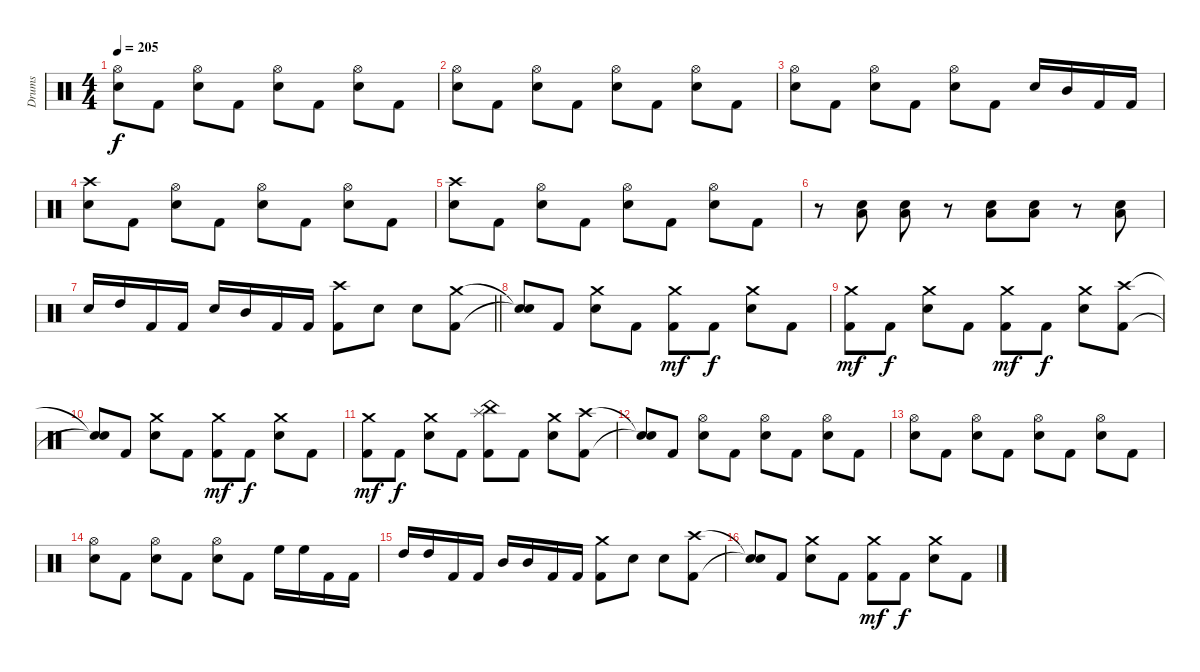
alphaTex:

\track ("Drums" "Drums") {instrument percussion}
\staff {score}
\articulation defaults
\ts (4 4)
\tempo 205
\clef neutral
\ks c
("Hi-Hat (open)" "Electric Snare (hit)").8{dy f} "Kick (hit) 2".8 ("Hi-Hat (open)" "Electric Snare (hit)").8 "Kick (hit) 2".8 ("Hi-Hat (open)" "Electric Snare (hit)").8 "Kick (hit) 2".8 ("Hi-Hat (open)" "Electric Snare (hit)").8 "Kick (hit) 2".8 |
("Hi-Hat (open)" "Electric Snare (hit)").8 "Kick (hit) 2".8 ("Hi-Hat (open)" "Electric Snare (hit)").8 "Kick (hit) 2".8 ("Hi-Hat (open)" "Electric Snare (hit)").8 "Kick (hit) 2".8 ("Hi-Hat (open)" "Electric Snare (hit)").8 "Kick (hit) 2".8 |
("Hi-Hat (open)" "Electric Snare (hit)").8 "Kick (hit) 2".8 ("Hi-Hat (open)" "Electric Snare (hit)").8 "Kick (hit) 2".8 ("Hi-Hat (open)" "Electric Snare (hit)").8 "Kick (hit) 2".8 "Electric Snare (hit)".16 "Mid Tom (hit)".16 "Kick (hit) 2".16 "Kick (hit) 2".16 |
("Crash high (hit)" "Electric Snare (hit)").8 "Kick (hit) 2".8 ("Hi-Hat (open)" "Electric Snare (hit)").8 "Kick (hit) 2".8 ("Hi-Hat (open)" "Electric Snare (hit)").8 "Kick (hit) 2".8 ("Hi-Hat (open)" "Electric Snare (hit)").8 "Kick (hit) 2".8 |
("Crash high (hit)" "Electric Snare (hit)").8 "Kick (hit) 2".8 ("Hi-Hat (open)" "Electric Snare (hit)").8 "Kick (hit) 2".8 ("Hi-Hat (open)" "Electric Snare (hit)").8 "Kick (hit) 2".8 ("Hi-Hat (open)" "Electric Snare (hit)").8 "Kick (hit) 2".8 |
r.8 ("Low Tom (hit)" "Electric Snare (hit)").8 ("Low Tom (hit)" "Electric Snare (hit)").8 r.8 ("Low Tom (hit)" "Electric Snare (hit)").8 ("Low Tom (hit)" "Electric Snare (hit)").8 r.8 ("Low Tom (hit)" "Electric Snare (hit)").8 |
\barLineRight lightlight "Electric Snare (hit)".16 "High Tom (hit)".16 "Kick (hit) 2".16 "Kick (hit) 2".16 "Electric Snare (hit)".16 "Mid Tom (hit)".16 "Kick (hit) 2".16 "Kick (hit) 2".16
("Crash high (hit)" "Kick (hit) 2").8 "Electric Snare (hit)".8 "Electric Snare (hit)".8 ("Crash medium (hit)" "Kick (hit) 2").8 |
("Snare (hit)"{t} "Snare (hit)"{t}).8 "Kick (hit) 2".8 ("Crash medium (hit)" "Electric Snare (hit)").8 "Kick (hit) 2".8 ("Crash medium (hit)" "Kick (hit) 2").8{dy mf} "Kick (hit) 2".8{dy f} ("Crash medium (hit)" "Electric Snare (hit)").8 "Kick (hit) 2".8 |
("Crash medium (hit)" "Kick (hit) 2").8{dy mf} "Kick (hit) 2".8{dy f} ("Crash medium (hit)" "Electric Snare (hit)").8 "Kick (hit) 2".8 ("Crash medium (hit)" "Kick (hit) 2").8{dy mf} "Kick (hit) 2".8{dy f} ("Crash medium (hit)" "Electric Snare (hit)").8 ("Crash high (hit)" "Kick (hit) 2").8 |
("Snare (hit)"{t} "Snare (hit)"{t}).8 "Kick (hit) 2".8 ("Crash medium (hit)" "Electric Snare (hit)").8 "Kick (hit) 2".8 ("Crash medium (hit)" "Kick (hit) 2").8{dy mf} "Kick (hit) 2".8{dy f} ("Crash medium (hit)" "Electric Snare (hit)").8 "Kick (hit) 2".8 |
("Crash medium (hit)" "Kick (hit) 2").8{dy mf} "Kick (hit) 2".8{dy f} ("Crash medium (hit)" "Electric Snare (hit)").8 "Kick (hit) 2".8 ("China (hit)" "Splash (hit)" "Kick (hit) 2").8 "Kick (hit) 2".8 ("Crash medium (hit)" "Electric Snare (hit)").8 ("Crash high (hit)" "Kick (hit) 2").8 |
("Snare (hit)"{t} "Electric Snare (hit)"{t}).8 "Kick (hit) 2".8 ("Hi-Hat (open)" "Electric Snare (hit)").8 "Kick (hit) 2".8 ("Hi-Hat (open)" "Electric Snare (hit)").8 "Kick (hit) 2".8 ("Hi-Hat (open)" "Electric Snare (hit)").8 "Kick (hit) 2".8 |
("Hi-Hat (open)" "Electric Snare (hit)").8 "Kick (hit) 2".8 ("Hi-Hat (open)" "Electric Snare (hit)").8 "Kick (hit) 2".8 ("Hi-Hat (open)" "Electric Snare (hit)").8 "Kick (hit) 2".8 ("Hi-Hat (open)" "Electric Snare (hit)").8 "Kick (hit) 2".8 |
("Hi-Hat (open)" "Electric Snare (hit)").8 "Kick (hit) 2".8 ("Hi-Hat (open)" "Electric Snare (hit)").8 "Kick (hit) 2".8 ("Hi-Hat (open)" "Electric Snare (hit)").8 "Kick (hit) 2".8 "High Floor Tom (hit)".16 "High Floor Tom (hit)".16 "Kick (hit) 2".16 "Kick (hit) 2".16 |
"High Tom (hit)".16 "High Tom (hit)".16 "Kick (hit) 2".16 "Kick (hit) 2".16 "Mid Tom (hit)".16 "Mid Tom (hit)".16 "Kick (hit) 2".16 "Kick (hit) 2".16 ("Crash medium (hit)" "Kick (hit) 2").8 "Electric Snare (hit)".8 "Electric Snare (hit)".8 ("Crash high (hit)" "Kick (hit) 2").8 |
("Snare (hit)"{t} "Snare (hit)"{t}).8 "Kick (hit) 2".8 ("Crash medium (hit)" "Electric Snare (hit)").8 "Kick (hit) 2".8 ("Crash medium (hit)" "Kick (hit) 2").8{dy mf} "Kick (hit) 2".8{dy f} ("Crash medium (hit)" "Electric Snare (hit)").8 "Kick (hit) 2".8
